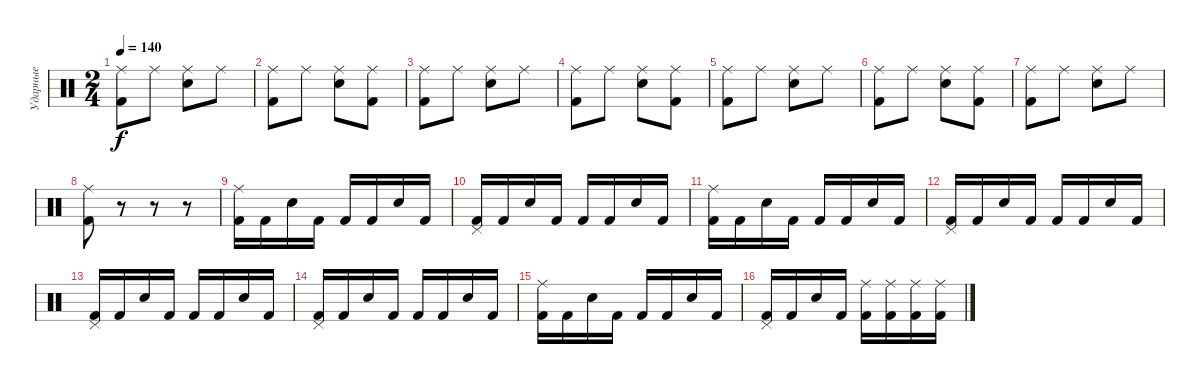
\track ("Ударные" "Ударные") {instrument percussion}
\staff {score}
\articulation defaults
\ts (2 4)
\tempo 140
\clef neutral
\ks c
("Ride (middle)" "Kick (hit) 2").8{dy f} "Ride (middle)".8 ("Ride (middle)" "Snare (hit) 2").8 "Ride (middle)".8 |
("Ride (middle)" "Kick (hit) 2").8 "Ride (middle)".8 ("Ride (middle)" "Snare (hit) 2").8 ("Ride (middle)" "Kick (hit) 2").8 |
("Ride (middle)" "Kick (hit) 2").8 "Ride (middle)".8 ("Ride (middle)" "Snare (hit) 2").8 "Ride (middle)".8 |
("Ride (middle)" "Kick (hit) 2").8 "Ride (middle)".8 ("Ride (middle)" "Snare (hit) 2").8 ("Ride (middle)" "Kick (hit) 2").8 |
("Ride (middle)" "Kick (hit) 2").8 "Ride (middle)".8 ("Ride (middle)" "Snare (hit) 2").8 "Ride (middle)".8 |
("Ride (middle)" "Kick (hit) 2").8 "Ride (middle)".8 ("Ride (middle)" "Snare (hit) 2").8 ("Ride (middle)" "Kick (hit) 2").8 |
("Ride (middle)" "Kick (hit) 2").8 "Ride (middle)".8 ("Ride (middle)" "Snare (hit) 2").8 "Ride (middle)".8 |
("Ride (middle)" "Kick (hit) 2").8 r.8 r.8 r.8 |
("Ride (middle)" "Kick (hit) 2").16 "Kick (hit) 2".16 "Snare (hit) 2".16 "Kick (hit) 2".16 "Kick (hit) 2".16 "Kick (hit) 2".16 "Snare (hit) 2".16 "Kick (hit) 2".16 |
("Pedal Hi-Hat (hit)" "Kick (hit) 2").16 "Kick (hit) 2".16 "Snare (hit) 2".16 "Kick (hit) 2".16 "Kick (hit) 2".16 "Kick (hit) 2".16 "Snare (hit) 2".16 "Kick (hit) 2".16 |
("Ride (middle)" "Kick (hit) 2").16 "Kick (hit) 2".16 "Snare (hit) 2".16 "Kick (hit) 2".16 "Kick (hit) 2".16 "Kick (hit) 2".16 "Snare (hit) 2".16 "Kick (hit) 2".16 |
("Pedal Hi-Hat (hit)" "Kick (hit) 2").16 "Kick (hit) 2".16 "Snare (hit) 2".16 "Kick (hit) 2".16 "Kick (hit) 2".16 "Kick (hit) 2".16 "Snare (hit) 2".16 "Kick (hit) 2".16 |
("Pedal Hi-Hat (hit)" "Kick (hit) 2").16 "Kick (hit) 2".16 "Snare (hit) 2".16 "Kick (hit) 2".16 "Kick (hit) 2".16 "Kick (hit) 2".16 "Snare (hit) 2".16 "Kick (hit) 2".16 |
("Pedal Hi-Hat (hit)" "Kick (hit) 2").16 "Kick (hit) 2".16 "Snare (hit) 2".16 "Kick (hit) 2".16 "Kick (hit) 2".16 "Kick (hit) 2".16 "Snare (hit) 2".16 "Kick (hit) 2".16 |
("Ride (middle)" "Kick (hit) 2").16 "Kick (hit) 2".16 "Snare (hit) 2".16 "Kick (hit) 2".16 "Kick (hit) 2".16 "Kick (hit) 2".16 "Snare (hit) 2".16 "Kick (hit) 2".16 |
("Pedal Hi-Hat (hit)" "Kick (hit) 2").16 "Kick (hit) 2".16 "Snare (hit) 2".16 "Kick (hit) 2".16 ("Ride (middle)" "Kick (hit) 2").16 ("Ride (middle)" "Kick (hit) 2").16 ("Ride (middle)" "Kick (hit) 2").16 ("Ride (middle)" "Kick (hit) 2").16
